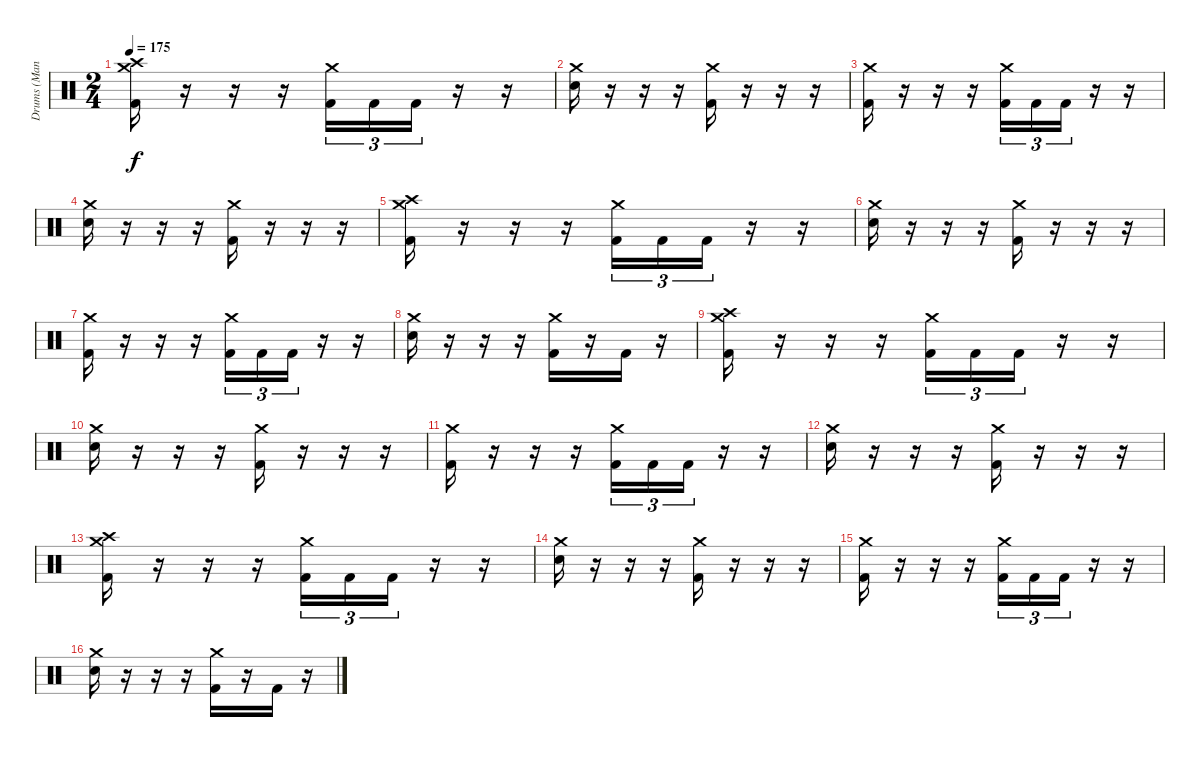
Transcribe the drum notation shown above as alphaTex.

\track ("Drums (Mancino)" "Drums (Man") {instrument percussion}
\staff {score}
\articulation defaults
\ts (2 4)
\tempo 175
\clef neutral
\ks c
("Crash medium (hit)" "Crash high (hit)" "Kick (hit) 2").16{dy f} r.16 r.16 r.16 ("Crash medium (hit)" "Kick (hit) 2").16{tu (3 2)} "Kick (hit) 2".16{tu (3 2)} "Kick (hit) 2".16{tu (3 2)} r.16 r.16 |
("Crash medium (hit)" "Electric Snare (hit)").16 r.16 r.16 r.16 ("Crash medium (hit)" "Kick (hit) 2").16 r.16 r.16 r.16 |
("Crash medium (hit)" "Kick (hit) 2").16 r.16 r.16 r.16 ("Crash medium (hit)" "Kick (hit) 2").16{tu (3 2)} "Kick (hit) 2".16{tu (3 2)} "Kick (hit) 2".16{tu (3 2)} r.16 r.16 |
("Crash medium (hit)" "Electric Snare (hit)").16 r.16 r.16 r.16 ("Crash medium (hit)" "Kick (hit) 2").16 r.16 r.16 r.16 |
("Crash medium (hit)" "Crash high (hit)" "Kick (hit) 2").16 r.16 r.16 r.16 ("Crash medium (hit)" "Kick (hit) 2").16{tu (3 2)} "Kick (hit) 2".16{tu (3 2)} "Kick (hit) 2".16{tu (3 2)} r.16 r.16 |
("Crash medium (hit)" "Electric Snare (hit)").16 r.16 r.16 r.16 ("Crash medium (hit)" "Kick (hit) 2").16 r.16 r.16 r.16 |
("Crash medium (hit)" "Kick (hit) 2").16 r.16 r.16 r.16 ("Crash medium (hit)" "Kick (hit) 2").16{tu (3 2)} "Kick (hit) 2".16{tu (3 2)} "Kick (hit) 2".16{tu (3 2)} r.16 r.16 |
("Crash medium (hit)" "Electric Snare (hit)").16 r.16 r.16 r.16 ("Crash medium (hit)" "Kick (hit) 2").16 r.16 "Kick (hit) 2".16 r.16 |
("Crash medium (hit)" "Crash high (hit)" "Kick (hit) 2").16 r.16 r.16 r.16 ("Crash medium (hit)" "Kick (hit) 2").16{tu (3 2)} "Kick (hit) 2".16{tu (3 2)} "Kick (hit) 2".16{tu (3 2)} r.16 r.16 |
("Crash medium (hit)" "Electric Snare (hit)").16 r.16 r.16 r.16 ("Crash medium (hit)" "Kick (hit) 2").16 r.16 r.16 r.16 |
("Crash medium (hit)" "Kick (hit) 2").16 r.16 r.16 r.16 ("Crash medium (hit)" "Kick (hit) 2").16{tu (3 2)} "Kick (hit) 2".16{tu (3 2)} "Kick (hit) 2".16{tu (3 2)} r.16 r.16 |
("Crash medium (hit)" "Electric Snare (hit)").16 r.16 r.16 r.16 ("Crash medium (hit)" "Kick (hit) 2").16 r.16 r.16 r.16 |
("Crash medium (hit)" "Crash high (hit)" "Kick (hit) 2").16 r.16 r.16 r.16 ("Crash medium (hit)" "Kick (hit) 2").16{tu (3 2)} "Kick (hit) 2".16{tu (3 2)} "Kick (hit) 2".16{tu (3 2)} r.16 r.16 |
("Crash medium (hit)" "Electric Snare (hit)").16 r.16 r.16 r.16 ("Crash medium (hit)" "Kick (hit) 2").16 r.16 r.16 r.16 |
("Crash medium (hit)" "Kick (hit) 2").16 r.16 r.16 r.16 ("Crash medium (hit)" "Kick (hit) 2").16{tu (3 2)} "Kick (hit) 2".16{tu (3 2)} "Kick (hit) 2".16{tu (3 2)} r.16 r.16 |
("Crash medium (hit)" "Electric Snare (hit)").16 r.16 r.16 r.16 ("Crash medium (hit)" "Kick (hit) 2").16 r.16 "Kick (hit) 2".16 r.16
